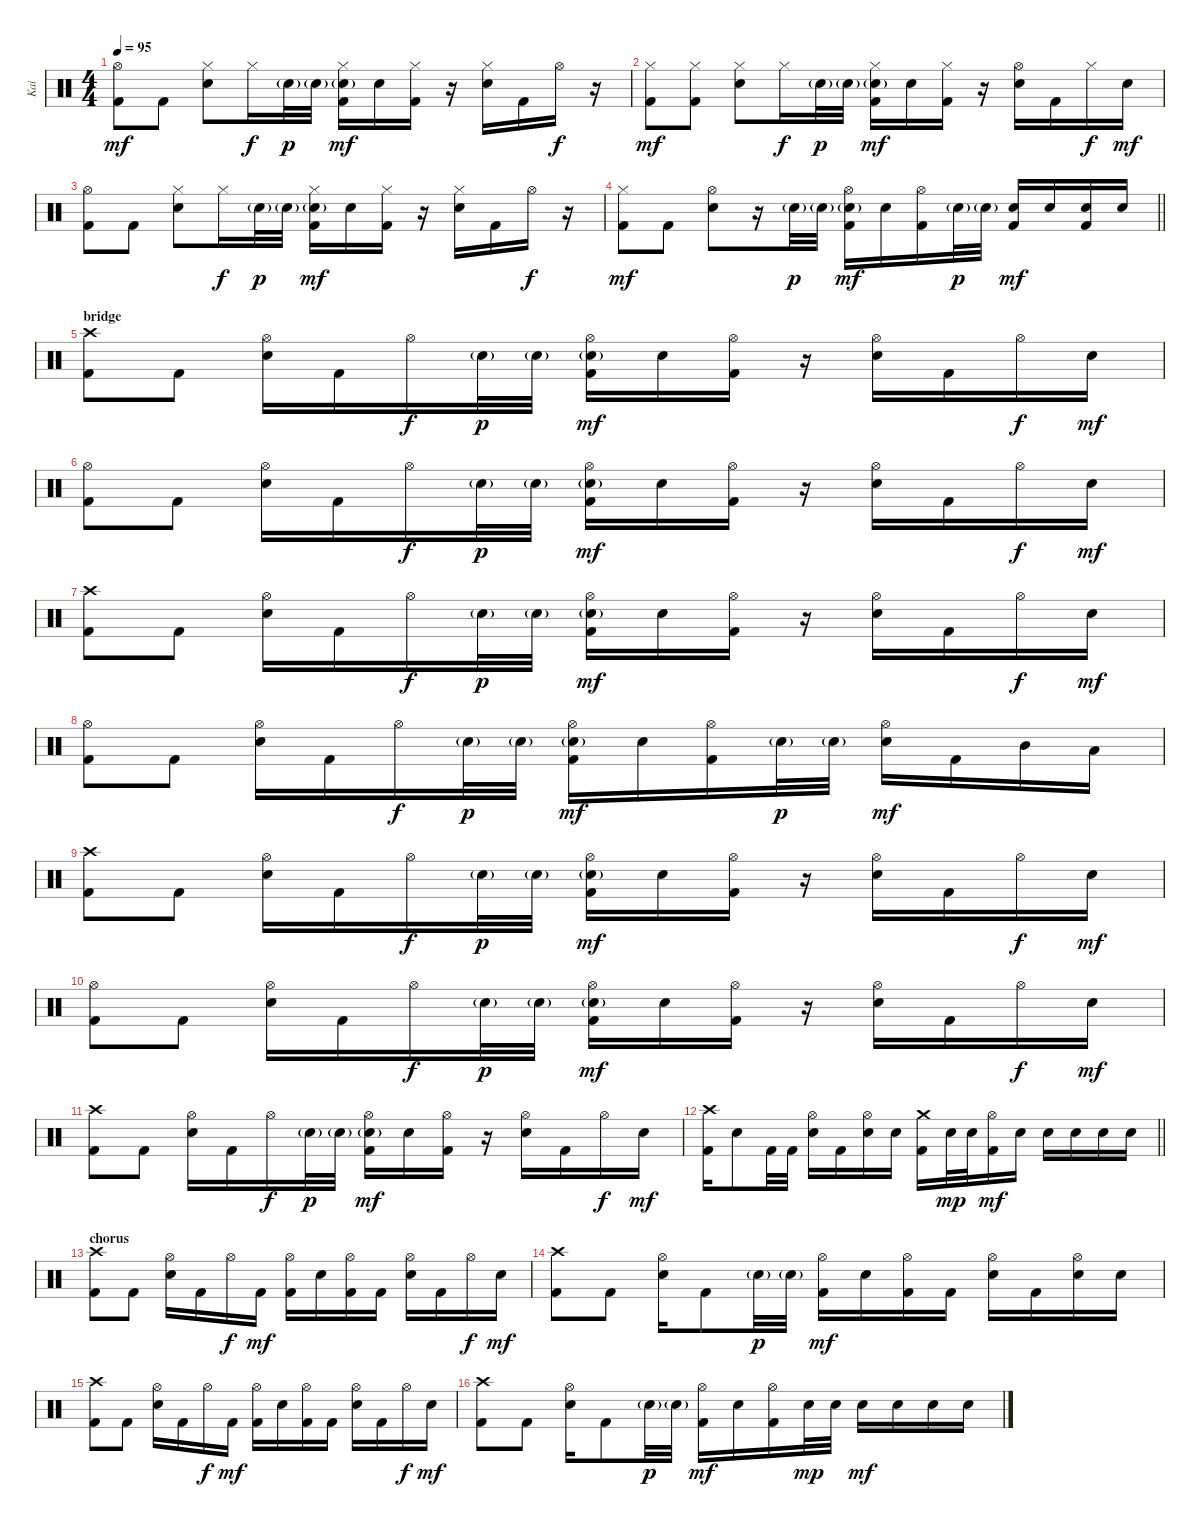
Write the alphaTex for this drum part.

\track ("Kai" "Kai") {instrument percussion}
\staff {score}
\articulation defaults
\ts (4 4)
\tempo 95
\clef neutral
\ks c
("Hi-Hat (open)" "Kick (hit) 2").8{dy mf} "Kick (hit) 2".8 ("Hi-Hat (closed)" "Electric Snare (hit)").8 "Hi-Hat (closed)".16{dy f} "Electric Snare (hit)"{g}.32{dy p} "Electric Snare (hit)"{g}.32 ("Hi-Hat (closed)" "Electric Snare (hit)"{g} "Kick (hit) 2").16{dy mf} "Electric Snare (hit)".16 ("Hi-Hat (closed)" "Kick (hit) 2").16 r.16 ("Hi-Hat (closed)" "Electric Snare (hit)").16 "Kick (hit) 2".16 "Hi-Hat (open)".16{dy f} r.16 |
("Hi-Hat (closed)" "Kick (hit) 2").8{dy mf} ("Hi-Hat (closed)" "Kick (hit) 2").8 ("Hi-Hat (closed)" "Electric Snare (hit)").8 "Hi-Hat (closed)".16{dy f} "Electric Snare (hit)"{g}.32{dy p} "Electric Snare (hit)"{g}.32 ("Hi-Hat (closed)" "Electric Snare (hit)"{g} "Kick (hit) 2").16{dy mf} "Electric Snare (hit)".16 ("Hi-Hat (closed)" "Kick (hit) 2").16 r.16 ("Hi-Hat (open)" "Electric Snare (hit)").16 "Kick (hit) 2".16 "Hi-Hat (closed)".16{dy f} "Electric Snare (hit)".16{dy mf} |
("Hi-Hat (open)" "Kick (hit) 2").8 "Kick (hit) 2".8 ("Hi-Hat (closed)" "Electric Snare (hit)").8 "Hi-Hat (closed)".16{dy f} "Electric Snare (hit)"{g}.32{dy p} "Electric Snare (hit)"{g}.32 ("Hi-Hat (closed)" "Electric Snare (hit)"{g} "Kick (hit) 2").16{dy mf} "Electric Snare (hit)".16 ("Hi-Hat (closed)" "Kick (hit) 2").16 r.16 ("Hi-Hat (closed)" "Electric Snare (hit)").16 "Kick (hit) 2".16 "Hi-Hat (open)".16{dy f} r.16 |
\barLineRight lightlight
("Hi-Hat (closed)" "Kick (hit) 2").8{dy mf} "Kick (hit) 2".8 ("Hi-Hat (open)" "Electric Snare (hit)").8 r.16 "Electric Snare (hit)"{g}.32{dy p} "Electric Snare (hit)"{g}.32 ("Hi-Hat (open)" "Electric Snare (hit)"{g} "Kick (hit) 2").16{dy mf} "Electric Snare (hit)".16 ("Hi-Hat (open)" "Kick (hit) 2").16 "Electric Snare (hit)"{g}.32{dy p} "Electric Snare (hit)"{g}.32 ("Electric Snare (hit)" "Kick (hit) 2").16{dy mf} "Electric Snare (hit)".16 ("Electric Snare (hit)" "Kick (hit) 2").16 "Electric Snare (hit)".16 |
\section ("" "bridge")
("Crash high (hit)" "Kick (hit) 2").8 "Kick (hit) 2".8 ("Hi-Hat (open)" "Electric Snare (hit)").16 "Kick (hit) 2".16 "Hi-Hat (open)".16{dy f} "Electric Snare (hit)"{g}.32{dy p} "Electric Snare (hit)"{g}.32 ("Hi-Hat (open)" "Electric Snare (hit)"{g} "Kick (hit) 2").16{dy mf} "Electric Snare (hit)".16 ("Hi-Hat (open)" "Kick (hit) 2").16 r.16 ("Hi-Hat (open)" "Electric Snare (hit)").16 "Kick (hit) 2".16 "Hi-Hat (open)".16{dy f} "Electric Snare (hit)".16{dy mf} |
("Hi-Hat (open)" "Kick (hit) 2").8 "Kick (hit) 2".8 ("Hi-Hat (open)" "Electric Snare (hit)").16 "Kick (hit) 2".16 "Hi-Hat (open)".16{dy f} "Electric Snare (hit)"{g}.32{dy p} "Electric Snare (hit)"{g}.32 ("Hi-Hat (open)" "Electric Snare (hit)"{g} "Kick (hit) 2").16{dy mf} "Electric Snare (hit)".16 ("Hi-Hat (open)" "Kick (hit) 2").16 r.16 ("Hi-Hat (open)" "Electric Snare (hit)").16 "Kick (hit) 2".16 "Hi-Hat (open)".16{dy f} "Electric Snare (hit)".16{dy mf} |
("Crash high (hit)" "Kick (hit) 2").8 "Kick (hit) 2".8 ("Hi-Hat (open)" "Electric Snare (hit)").16 "Kick (hit) 2".16 "Hi-Hat (open)".16{dy f} "Electric Snare (hit)"{g}.32{dy p} "Electric Snare (hit)"{g}.32 ("Hi-Hat (open)" "Electric Snare (hit)"{g} "Kick (hit) 2").16{dy mf} "Electric Snare (hit)".16 ("Hi-Hat (open)" "Kick (hit) 2").16 r.16 ("Hi-Hat (open)" "Electric Snare (hit)").16 "Kick (hit) 2".16 "Hi-Hat (open)".16{dy f} "Electric Snare (hit)".16{dy mf} |
("Hi-Hat (open)" "Kick (hit) 2").8 "Kick (hit) 2".8 ("Hi-Hat (open)" "Electric Snare (hit)").16 "Kick (hit) 2".16 "Hi-Hat (open)".16{dy f} "Electric Snare (hit)"{g}.32{dy p} "Electric Snare (hit)"{g}.32 ("Hi-Hat (open)" "Electric Snare (hit)"{g} "Kick (hit) 2").16{dy mf} "Electric Snare (hit)".16 ("Hi-Hat (open)" "Kick (hit) 2").16 "Electric Snare (hit)"{g}.32{dy p} "Electric Snare (hit)"{g}.32 ("Hi-Hat (open)" "Electric Snare (hit)").16{dy mf} "Kick (hit) 2".16 "Mid Tom (hit)".16 "Low Tom (hit)".16 |
("Crash high (hit)" "Kick (hit) 2").8 "Kick (hit) 2".8 ("Hi-Hat (open)" "Electric Snare (hit)").16 "Kick (hit) 2".16 "Hi-Hat (open)".16{dy f} "Electric Snare (hit)"{g}.32{dy p} "Electric Snare (hit)"{g}.32 ("Hi-Hat (open)" "Electric Snare (hit)"{g} "Kick (hit) 2").16{dy mf} "Electric Snare (hit)".16 ("Hi-Hat (open)" "Kick (hit) 2").16 r.16 ("Hi-Hat (open)" "Electric Snare (hit)").16 "Kick (hit) 2".16 "Hi-Hat (open)".16{dy f} "Electric Snare (hit)".16{dy mf} |
("Hi-Hat (open)" "Kick (hit) 2").8 "Kick (hit) 2".8 ("Hi-Hat (open)" "Electric Snare (hit)").16 "Kick (hit) 2".16 "Hi-Hat (open)".16{dy f} "Electric Snare (hit)"{g}.32{dy p} "Electric Snare (hit)"{g}.32 ("Hi-Hat (open)" "Electric Snare (hit)"{g} "Kick (hit) 2").16{dy mf} "Electric Snare (hit)".16 ("Hi-Hat (open)" "Kick (hit) 2").16 r.16 ("Hi-Hat (open)" "Electric Snare (hit)").16 "Kick (hit) 2".16 "Hi-Hat (open)".16{dy f} "Electric Snare (hit)".16{dy mf} |
("Crash high (hit)" "Kick (hit) 2").8 "Kick (hit) 2".8 ("Hi-Hat (open)" "Electric Snare (hit)").16 "Kick (hit) 2".16 "Hi-Hat (open)".16{dy f} "Electric Snare (hit)"{g}.32{dy p} "Electric Snare (hit)"{g}.32 ("Hi-Hat (open)" "Electric Snare (hit)"{g} "Kick (hit) 2").16{dy mf} "Electric Snare (hit)".16 ("Hi-Hat (open)" "Kick (hit) 2").16 r.16 ("Hi-Hat (open)" "Electric Snare (hit)").16 "Kick (hit) 2".16 "Hi-Hat (open)".16{dy f} "Electric Snare (hit)".16{dy mf} |
\barLineRight lightlight
("Crash high (hit)" "Kick (hit) 2").16 "Electric Snare (hit)".8 "Kick (hit) 2".32 "Kick (hit) 2".32 ("Hi-Hat (open)" "Electric Snare (hit)").16 "Kick (hit) 2".16 ("Hi-Hat (open)" "Electric Snare (hit)").16 "Electric Snare (hit)".16 ("Crash medium (hit)" "Kick (hit) 2").16 "Electric Snare (hit)".32{dy mp} "Electric Snare (hit)".32 ("Hi-Hat (open)" "Kick (hit) 2").16{dy mf} "Electric Snare (hit)".16 "Electric Snare (hit)".16 "Electric Snare (hit)".16 "Electric Snare (hit)".16 "Electric Snare (hit)".16 |
\section ("" "chorus")
("Crash high (hit)" "Kick (hit) 2").8 "Kick (hit) 2".8 ("Hi-Hat (open)" "Electric Snare (hit)").16 "Kick (hit) 2".16 "Hi-Hat (open)".16{dy f} "Kick (hit) 2".16{dy mf} ("Hi-Hat (open)" "Kick (hit) 2").16 "Electric Snare (hit)".16 ("Hi-Hat (open)" "Kick (hit) 2").16 "Kick (hit) 2".16 ("Hi-Hat (open)" "Electric Snare (hit)").16 "Kick (hit) 2".16 "Hi-Hat (open)".16{dy f} "Electric Snare (hit)".16{dy mf} |
("Crash high (hit)" "Kick (hit) 2").8 "Kick (hit) 2".8 ("Hi-Hat (open)" "Electric Snare (hit)").16 "Kick (hit) 2".8 "Electric Snare (hit)"{g}.32{dy p} "Electric Snare (hit)"{g}.32 ("Hi-Hat (open)" "Kick (hit) 2").16{dy mf} "Electric Snare (hit)".16 ("Hi-Hat (open)" "Kick (hit) 2").16 "Kick (hit) 2".16 ("Hi-Hat (open)" "Electric Snare (hit)").16 "Kick (hit) 2".16 ("Hi-Hat (open)" "Electric Snare (hit)").16 "Electric Snare (hit)".16 |
("Crash high (hit)" "Kick (hit) 2").8 "Kick (hit) 2".8 ("Hi-Hat (open)" "Electric Snare (hit)").16 "Kick (hit) 2".16 "Hi-Hat (open)".16{dy f} "Kick (hit) 2".16{dy mf} ("Hi-Hat (open)" "Kick (hit) 2").16 "Electric Snare (hit)".16 ("Hi-Hat (open)" "Kick (hit) 2").16 "Kick (hit) 2".16 ("Hi-Hat (open)" "Electric Snare (hit)").16 "Kick (hit) 2".16 "Hi-Hat (open)".16{dy f} "Electric Snare (hit)".16{dy mf} |
("Crash high (hit)" "Kick (hit) 2").8 "Kick (hit) 2".8 ("Hi-Hat (open)" "Electric Snare (hit)").16 "Kick (hit) 2".8 "Electric Snare (hit)"{g}.32{dy p} "Electric Snare (hit)"{g}.32 ("Hi-Hat (open)" "Kick (hit) 2").16{dy mf} "Electric Snare (hit)".16 ("Hi-Hat (open)" "Kick (hit) 2").16 "Electric Snare (hit)".32{dy mp} "Electric Snare (hit)".32 "Electric Snare (hit)".16{dy mf} "Electric Snare (hit)".16 "Electric Snare (hit)".16 "Electric Snare (hit)".16
